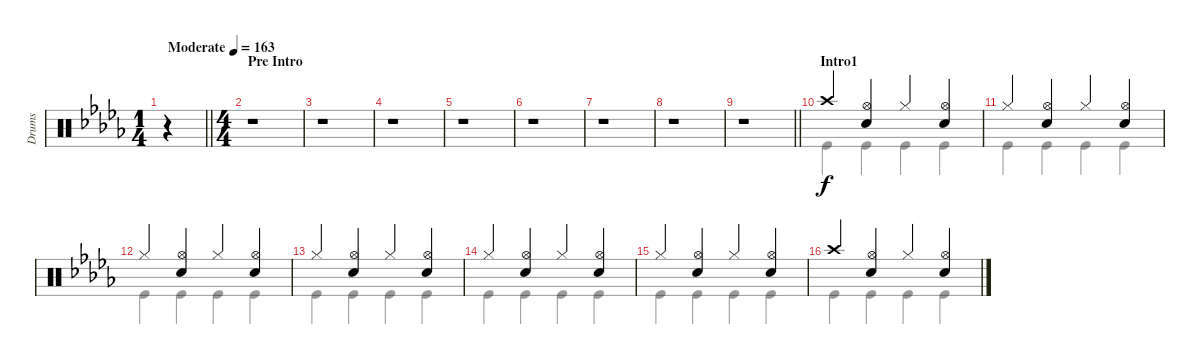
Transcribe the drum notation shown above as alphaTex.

\track ("Drums" "Drums") {instrument percussion}
\staff {score}
\articulation defaults
\voice
\ts (1 4)
\tempo (163 "Moderate")
\clef neutral
\barLineRight lightlight
\ks db
r.4{dy f} |
\ts (4 4)
\section ("" "Pre Intro")
r.1 |
r.1 |
r.1 |
r.1 |
r.1 |
r.1 |
r.1 |
\barLineRight lightlight
r.1 |
\section ("" "Intro1")
"Crash high (hit)".4 ("Hi-Hat (open)" "Snare (hit) 2").4 "Hi-Hat (closed)".4 ("Hi-Hat (open)" "Snare (hit) 2").4 |
"Hi-Hat (closed)".4 ("Hi-Hat (open)" "Snare (hit) 2").4 "Hi-Hat (closed)".4 ("Hi-Hat (open)" "Snare (hit) 2").4 |
"Hi-Hat (closed)".4 ("Hi-Hat (open)" "Snare (hit) 2").4 "Hi-Hat (closed)".4 ("Hi-Hat (open)" "Snare (hit) 2").4 |
"Hi-Hat (closed)".4 ("Hi-Hat (open)" "Snare (hit) 2").4 "Hi-Hat (closed)".4 ("Hi-Hat (open)" "Snare (hit) 2").4 |
"Hi-Hat (closed)".4 ("Hi-Hat (open)" "Snare (hit) 2").4 "Hi-Hat (closed)".4 ("Hi-Hat (open)" "Snare (hit) 2").4 |
"Hi-Hat (closed)".4 ("Hi-Hat (open)" "Snare (hit) 2").4 "Hi-Hat (closed)".4 ("Hi-Hat (open)" "Snare (hit) 2").4 |
"Crash high (hit)".4 ("Hi-Hat (open)" "Snare (hit) 2").4 "Hi-Hat (closed)".4 ("Hi-Hat (open)" "Snare (hit) 2").4
\voice
\clef neutral
\ottava regular
\simile none
\barLineRight lightlight
\ks db
|
|
|
|
|
|
|
|
\barLineRight lightlight
|
"Kick (hit)".4 "Kick (hit)".4 "Kick (hit)".4 "Kick (hit)".4 |
"Kick (hit)".4 "Kick (hit)".4 "Kick (hit)".4 "Kick (hit)".4 |
"Kick (hit)".4 "Kick (hit)".4 "Kick (hit)".4 "Kick (hit)".4 |
"Kick (hit)".4 "Kick (hit)".4 "Kick (hit)".4 "Kick (hit)".4 |
"Kick (hit)".4 "Kick (hit)".4 "Kick (hit)".4 "Kick (hit)".4 |
"Kick (hit)".4 "Kick (hit)".4 "Kick (hit)".4 "Kick (hit)".4 |
"Kick (hit)".4 "Kick (hit)".4 "Kick (hit)".4 "Kick (hit)".4
